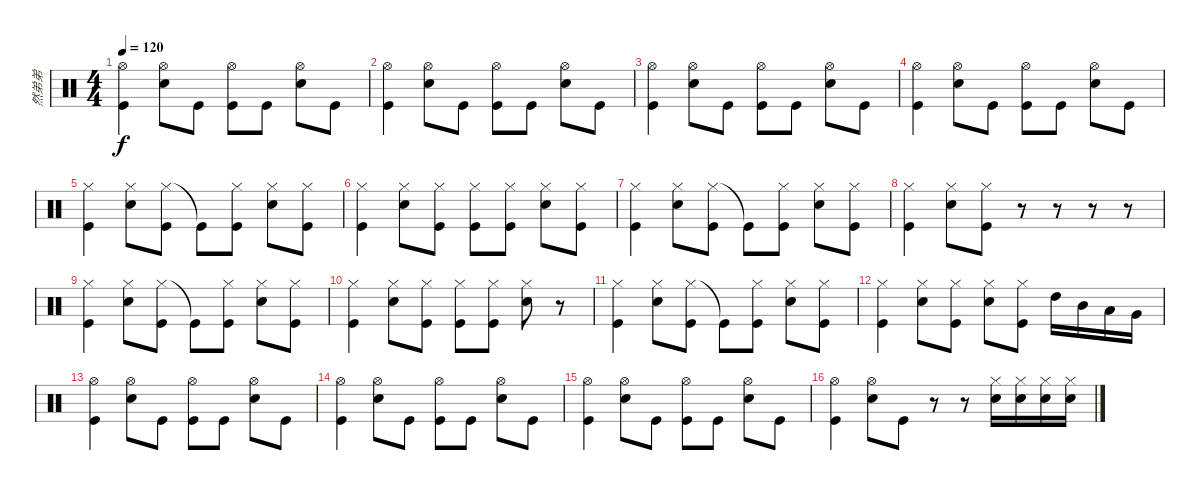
\track ("然弟弟" "然弟弟") {instrument percussion}
\staff {score}
\articulation defaults
\ts (4 4)
\tempo 120
\clef neutral
\ks c
("Hi-Hat (open)" "Kick (hit)").4{dy f} ("Hi-Hat (open)" "Electric Snare (hit)").8 "Kick (hit)".8 ("Hi-Hat (open)" "Kick (hit)").8 "Kick (hit)".8 ("Hi-Hat (open)" "Electric Snare (hit)").8 "Kick (hit)".8 |
("Hi-Hat (open)" "Kick (hit)").4 ("Hi-Hat (open)" "Electric Snare (hit)").8 "Kick (hit)".8 ("Hi-Hat (open)" "Kick (hit)").8 "Kick (hit)".8 ("Hi-Hat (open)" "Electric Snare (hit)").8 "Kick (hit)".8 |
("Hi-Hat (open)" "Kick (hit)").4 ("Hi-Hat (open)" "Electric Snare (hit)").8 "Kick (hit)".8 ("Hi-Hat (open)" "Kick (hit)").8 "Kick (hit)".8 ("Hi-Hat (open)" "Electric Snare (hit)").8 "Kick (hit)".8 |
("Hi-Hat (open)" "Kick (hit)").4 ("Hi-Hat (open)" "Electric Snare (hit)").8 "Kick (hit)".8 ("Hi-Hat (open)" "Kick (hit)").8 "Kick (hit)".8 ("Hi-Hat (open)" "Electric Snare (hit)").8 "Kick (hit)".8 |
("Hi-Hat (closed)" "Kick (hit)").4 ("Hi-Hat (closed)" "Electric Snare (hit)").8 ("Hi-Hat (closed)" "Kick (hit)").8 "Kick (hit)"{t}.8 ("Hi-Hat (closed)" "Kick (hit)").8 ("Hi-Hat (closed)" "Electric Snare (hit)").8 ("Hi-Hat (closed)" "Kick (hit)").8 |
("Hi-Hat (closed)" "Kick (hit)").4 ("Hi-Hat (closed)" "Electric Snare (hit)").8 ("Hi-Hat (closed)" "Kick (hit)").8 ("Hi-Hat (closed)" "Kick (hit)").8 ("Hi-Hat (closed)" "Kick (hit)").8 ("Hi-Hat (closed)" "Electric Snare (hit)").8 ("Hi-Hat (closed)" "Kick (hit)").8 |
("Hi-Hat (closed)" "Kick (hit)").4 ("Hi-Hat (closed)" "Electric Snare (hit)").8 ("Hi-Hat (closed)" "Kick (hit)").8 "Kick (hit)"{t}.8 ("Hi-Hat (closed)" "Kick (hit)").8 ("Hi-Hat (closed)" "Electric Snare (hit)").8 ("Hi-Hat (closed)" "Kick (hit)").8 |
("Hi-Hat (closed)" "Kick (hit)").4 ("Hi-Hat (closed)" "Electric Snare (hit)").8 ("Hi-Hat (closed)" "Kick (hit)").8 r.8 r.8 r.8 r.8 |
("Hi-Hat (closed)" "Kick (hit)").4 ("Hi-Hat (closed)" "Electric Snare (hit)").8 ("Hi-Hat (closed)" "Kick (hit)").8 "Kick (hit)"{t}.8 ("Hi-Hat (closed)" "Kick (hit)").8 ("Hi-Hat (closed)" "Electric Snare (hit)").8 ("Hi-Hat (closed)" "Kick (hit)").8 |
("Hi-Hat (closed)" "Kick (hit)").4 ("Hi-Hat (closed)" "Electric Snare (hit)").8 ("Hi-Hat (closed)" "Kick (hit)").8 ("Hi-Hat (closed)" "Kick (hit)").8 ("Hi-Hat (closed)" "Kick (hit)").8 ("Hi-Hat (closed)" "Electric Snare (hit)").8 r.8 |
("Hi-Hat (closed)" "Kick (hit)").4 ("Hi-Hat (closed)" "Electric Snare (hit)").8 ("Hi-Hat (closed)" "Kick (hit)").8 "Kick (hit)"{t}.8 ("Hi-Hat (closed)" "Kick (hit)").8 ("Hi-Hat (closed)" "Electric Snare (hit)").8 ("Hi-Hat (closed)" "Kick (hit)").8 |
("Hi-Hat (closed)" "Kick (hit)").4 ("Hi-Hat (closed)" "Electric Snare (hit)").8 ("Hi-Hat (closed)" "Kick (hit)").8 ("Hi-Hat (closed)" "Electric Snare (hit)").8 ("Hi-Hat (closed)" "Kick (hit)").8 "High Tom (hit)".16 "Mid Tom (hit)".16 "Low Tom (hit)".16 "Very Low Tom (hit)".16 |
("Hi-Hat (open)" "Kick (hit)").4 ("Hi-Hat (open)" "Electric Snare (hit)").8 "Kick (hit)".8 ("Hi-Hat (open)" "Kick (hit)").8 "Kick (hit)".8 ("Hi-Hat (open)" "Electric Snare (hit)").8 "Kick (hit)".8 |
("Hi-Hat (open)" "Kick (hit)").4 ("Hi-Hat (open)" "Electric Snare (hit)").8 "Kick (hit)".8 ("Hi-Hat (open)" "Kick (hit)").8 "Kick (hit)".8 ("Hi-Hat (open)" "Electric Snare (hit)").8 "Kick (hit)".8 |
("Hi-Hat (open)" "Kick (hit)").4 ("Hi-Hat (open)" "Electric Snare (hit)").8 "Kick (hit)".8 ("Hi-Hat (open)" "Kick (hit)").8 "Kick (hit)".8 ("Hi-Hat (open)" "Electric Snare (hit)").8 "Kick (hit)".8 |
("Hi-Hat (open)" "Kick (hit)").4 ("Hi-Hat (open)" "Electric Snare (hit)").8 "Kick (hit)".8 r.8 r.8 ("Hi-Hat (closed)" "Electric Snare (hit)").16 ("Hi-Hat (closed)" "Electric Snare (hit)").16 ("Hi-Hat (closed)" "Electric Snare (hit)").16 ("Hi-Hat (closed)" "Electric Snare (hit)").16
